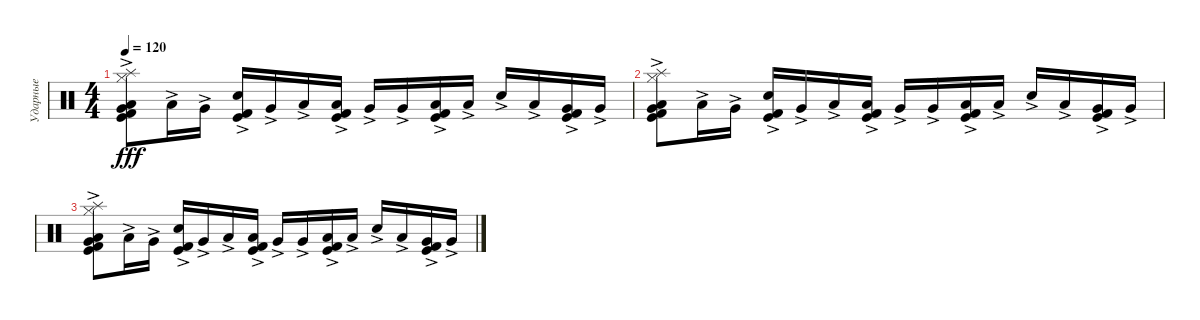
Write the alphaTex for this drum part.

\track ("Ударные" "Ударные") {instrument percussion}
\staff {score}
\articulation defaults
\ts (4 4)
\tempo 120
\clef neutral
\ks c
("Hi-Hat (closed)" "Splash (hit)" "Very Low Tom (hit)" "Low Tom (hit)" "Kick (hit)"{ac} "Kick (hit) 2"{ac}).8{dy fff volume 11} "Low Tom (hit)"{ac}.16 "Very Low Tom (hit)"{ac}.16 ("Electric Snare (hit)"{ac} "Kick (hit)"{ac} "Kick (hit) 2"{ac}).16 "Very Low Tom (hit)"{ac}.16 "Low Tom (hit)"{ac}.16 ("Low Tom (hit)"{ac} "Kick (hit)"{ac} "Kick (hit) 2"{ac}).16 "Very Low Tom (hit)"{ac}.16 "Very Low Tom (hit)"{ac}.16{volume 10} ("Low Tom (hit)"{ac} "Kick (hit)"{ac} "Kick (hit) 2"{ac}).16 "Low Tom (hit)"{ac}.16 "Electric Snare (hit)"{ac}.16 "Low Tom (hit)"{ac}.16 ("Very Low Tom (hit)"{ac} "Kick (hit)"{ac} "Kick (hit) 2"{ac}).16 "Very Low Tom (hit)"{ac}.16 |
("Hi-Hat (closed)" "Splash (hit)" "Very Low Tom (hit)" "Low Tom (hit)" "Kick (hit)"{ac} "Kick (hit) 2"{ac}).8{volume 9} "Low Tom (hit)"{ac}.16 "Very Low Tom (hit)"{ac}.16 ("Electric Snare (hit)"{ac} "Kick (hit)"{ac} "Kick (hit) 2"{ac}).16 "Very Low Tom (hit)"{ac}.16 "Low Tom (hit)"{ac}.16 ("Low Tom (hit)"{ac} "Kick (hit)"{ac} "Kick (hit) 2"{ac}).16 "Very Low Tom (hit)"{ac}.16 "Very Low Tom (hit)"{ac}.16{volume 8} ("Low Tom (hit)"{ac} "Kick (hit)"{ac} "Kick (hit) 2"{ac}).16 "Low Tom (hit)"{ac}.16 "Electric Snare (hit)"{ac}.16 "Low Tom (hit)"{ac}.16 ("Very Low Tom (hit)"{ac} "Kick (hit)"{ac} "Kick (hit) 2"{ac}).16 "Very Low Tom (hit)"{ac}.16 |
("Hi-Hat (closed)" "Splash (hit)" "Very Low Tom (hit)" "Low Tom (hit)" "Kick (hit)"{ac} "Kick (hit) 2"{ac}).8{volume 7} "Low Tom (hit)"{ac}.16 "Very Low Tom (hit)"{ac}.16 ("Electric Snare (hit)"{ac} "Kick (hit)"{ac} "Kick (hit) 2"{ac}).16 "Very Low Tom (hit)"{ac}.16 "Low Tom (hit)"{ac}.16{volume 6} ("Low Tom (hit)"{ac} "Kick (hit)"{ac} "Kick (hit) 2"{ac}).16 "Very Low Tom (hit)"{ac}.16 "Very Low Tom (hit)"{ac}.16 ("Low Tom (hit)"{ac} "Kick (hit)"{ac} "Kick (hit) 2"{ac}).16{volume 5} "Low Tom (hit)"{ac}.16 "Electric Snare (hit)"{ac}.16 "Low Tom (hit)"{ac}.16{volume 3} ("Very Low Tom (hit)"{ac} "Kick (hit)"{ac} "Kick (hit) 2"{ac}).16 "Very Low Tom (hit)"{ac}.16
